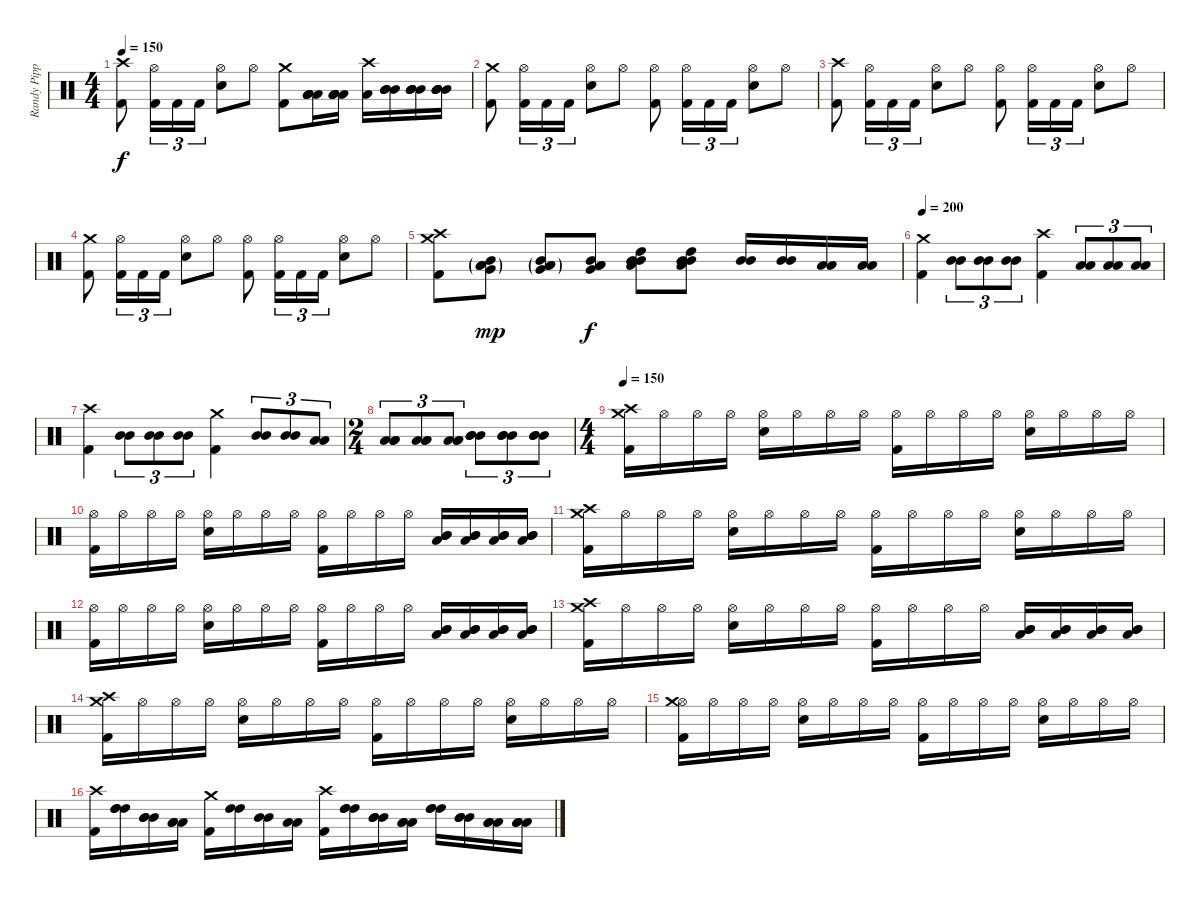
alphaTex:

\track ("Randy Pipper" "Randy Pipp") {instrument percussion}
\staff {score}
\articulation defaults
\ts (4 4)
\tempo 150
\clef neutral
\ks c
("Kick (hit) 2" "Crash high (hit)").8{dy f} ("Kick (hit) 2" "Hi-Hat (open)").16{tu (3 2)} "Kick (hit) 2".16{tu (3 2)} "Kick (hit) 2".16{tu (3 2)} ("Snare (hit) 2" "Hi-Hat (open)").8 "Hi-Hat (open)".8 ("Kick (hit) 2" "Crash medium (hit)").8 ("Low Tom (hit)" "Low Tom (hit)" "Low Tom (hit)" "Low Tom (hit)").16 ("Low Tom (hit)" "Low Tom (hit)" "Low Tom (hit)" "Low Tom (hit)").16 ("Low Tom (hit)" "Crash high (hit)").16 ("Mid Tom (hit)" "Mid Tom (hit)" "Mid Tom (hit)" "Mid Tom (hit)").16 ("Mid Tom (hit)" "Mid Tom (hit)" "Mid Tom (hit)" "Mid Tom (hit)").16 ("Mid Tom (hit)" "Mid Tom (hit)" "Mid Tom (hit)" "Mid Tom (hit)").16 |
("Kick (hit) 2" "Crash medium (hit)").8 ("Kick (hit) 2" "Hi-Hat (open)").16{tu (3 2)} "Kick (hit) 2".16{tu (3 2)} "Kick (hit) 2".16{tu (3 2)} ("Snare (hit) 2" "Hi-Hat (open)").8 "Hi-Hat (open)".8 ("Kick (hit) 2" "Hi-Hat (open)").8 ("Kick (hit) 2" "Hi-Hat (open)").16{tu (3 2)} "Kick (hit) 2".16{tu (3 2)} "Kick (hit) 2".16{tu (3 2)} ("Snare (hit) 2" "Hi-Hat (open)").8 "Hi-Hat (open)".8 |
("Kick (hit) 2" "Crash high (hit)").8 ("Kick (hit) 2" "Hi-Hat (open)").16{tu (3 2)} "Kick (hit) 2".16{tu (3 2)} "Kick (hit) 2".16{tu (3 2)} ("Snare (hit) 2" "Hi-Hat (open)").8 "Hi-Hat (open)".8 ("Kick (hit) 2" "Hi-Hat (open)").8 ("Kick (hit) 2" "Hi-Hat (open)").16{tu (3 2)} "Kick (hit) 2".16{tu (3 2)} "Kick (hit) 2".16{tu (3 2)} ("Snare (hit) 2" "Hi-Hat (open)").8 "Hi-Hat (open)".8 |
("Kick (hit) 2" "Crash medium (hit)").8 ("Kick (hit) 2" "Hi-Hat (open)").16{tu (3 2)} "Kick (hit) 2".16{tu (3 2)} "Kick (hit) 2".16{tu (3 2)} ("Snare (hit) 2" "Hi-Hat (open)").8 "Hi-Hat (open)".8 ("Kick (hit) 2" "Hi-Hat (open)").8 ("Kick (hit) 2" "Hi-Hat (open)").16{tu (3 2)} "Kick (hit) 2".16{tu (3 2)} "Kick (hit) 2".16{tu (3 2)} ("Snare (hit) 2" "Hi-Hat (open)").8 "Hi-Hat (open)".8 |
("Crash medium (hit)" "Crash high (hit)" "Kick (hit) 2").8 ("Mid Tom (hit)"{g} "Low Tom (hit)"{g} "Low Tom (hit)"{g} "Very Low Tom (hit)"{g}).8{dy mp} ("Mid Tom (hit)"{g} "Low Tom (hit)"{g} "Low Tom (hit)"{g} "Very Low Tom (hit)"{g}).8 ("Mid Tom (hit)" "Low Tom (hit)" "Low Tom (hit)" "Very Low Tom (hit)").8{dy f} ("Mid Tom (hit)" "Mid Tom (hit)" "Low Tom (hit)" "High Tom (hit)").8 ("Mid Tom (hit)" "Mid Tom (hit)" "Low Tom (hit)" "High Tom (hit)").8 ("Mid Tom (hit)" "Mid Tom (hit)").16 ("Mid Tom (hit)" "Mid Tom (hit)").16 ("Low Tom (hit)" "Low Tom (hit)").16 ("Low Tom (hit)" "Low Tom (hit)").16 |
\tempo 200
("Kick (hit) 2" "Crash medium (hit)").4 ("Mid Tom (hit)" "Mid Tom (hit)").8{tu (3 2)} ("Mid Tom (hit)" "Mid Tom (hit)").8{tu (3 2)} ("Mid Tom (hit)" "Mid Tom (hit)").8{tu (3 2)} ("Kick (hit) 2" "Crash high (hit)").4 ("Low Tom (hit)" "Low Tom (hit)").8{tu (3 2)} ("Low Tom (hit)" "Low Tom (hit)").8{tu (3 2)} ("Low Tom (hit)" "Low Tom (hit)").8{tu (3 2)} |
("Kick (hit) 2" "Crash high (hit)").4 ("Mid Tom (hit)" "Mid Tom (hit)").8{tu (3 2)} ("Mid Tom (hit)" "Mid Tom (hit)").8{tu (3 2)} ("Mid Tom (hit)" "Mid Tom (hit)").8{tu (3 2)} ("Crash medium (hit)" "Kick (hit) 2").4 ("Mid Tom (hit)" "Mid Tom (hit)").8{tu (3 2)} ("Mid Tom (hit)" "Mid Tom (hit)").8{tu (3 2)} ("Low Tom (hit)" "Low Tom (hit)").8{tu (3 2)} |
\ts (2 4)
("Low Tom (hit)" "Low Tom (hit)" "Low Tom (hit)").8{tu (3 2)} ("Low Tom (hit)" "Low Tom (hit)" "Low Tom (hit)").8{tu (3 2)} ("Low Tom (hit)" "Low Tom (hit)" "Low Tom (hit)").8{tu (3 2)} ("Mid Tom (hit)" "Mid Tom (hit)" "Mid Tom (hit)").8{tu (3 2)} ("Mid Tom (hit)" "Mid Tom (hit)" "Mid Tom (hit)").8{tu (3 2)} ("Mid Tom (hit)" "Mid Tom (hit)" "Mid Tom (hit)").8{tu (3 2)} |
\ts (4 4)
\tempo 150
("Crash medium (hit)" "Kick (hit) 2" "Crash high (hit)").16 "Hi-Hat (open)".16 "Hi-Hat (open)".16 "Hi-Hat (open)".16 ("Hi-Hat (open)" "Snare (hit) 2").16 "Hi-Hat (open)".16 "Hi-Hat (open)".16 "Hi-Hat (open)".16 ("Hi-Hat (open)" "Kick (hit) 2").16 "Hi-Hat (open)".16 "Hi-Hat (open)".16 "Hi-Hat (open)".16 ("Hi-Hat (open)" "Snare (hit) 2").16 "Hi-Hat (open)".16 "Hi-Hat (open)".16 "Hi-Hat (open)".16 |
("Hi-Hat (open)" "Kick (hit) 2").16 "Hi-Hat (open)".16 "Hi-Hat (open)".16 "Hi-Hat (open)".16 ("Hi-Hat (open)" "Snare (hit) 2").16 "Hi-Hat (open)".16 "Hi-Hat (open)".16 "Hi-Hat (open)".16 ("Hi-Hat (open)" "Kick (hit) 2").16 "Hi-Hat (open)".16 "Hi-Hat (open)".16 "Hi-Hat (open)".16 ("Low Tom (hit)" "Mid Tom (hit)" "Mid Tom (hit)").16 ("Low Tom (hit)" "Mid Tom (hit)" "Mid Tom (hit)").16 ("Low Tom (hit)" "Mid Tom (hit)" "Mid Tom (hit)").16 ("Low Tom (hit)" "Mid Tom (hit)" "Mid Tom (hit)").16 |
("Crash medium (hit)" "Kick (hit) 2" "Crash high (hit)").16 "Hi-Hat (open)".16 "Hi-Hat (open)".16 "Hi-Hat (open)".16 ("Hi-Hat (open)" "Snare (hit) 2").16 "Hi-Hat (open)".16 "Hi-Hat (open)".16 "Hi-Hat (open)".16 ("Hi-Hat (open)" "Kick (hit) 2").16 "Hi-Hat (open)".16 "Hi-Hat (open)".16 "Hi-Hat (open)".16 ("Hi-Hat (open)" "Snare (hit) 2").16 "Hi-Hat (open)".16 "Hi-Hat (open)".16 "Hi-Hat (open)".16 |
("Hi-Hat (open)" "Kick (hit) 2").16 "Hi-Hat (open)".16 "Hi-Hat (open)".16 "Hi-Hat (open)".16 ("Hi-Hat (open)" "Snare (hit) 2").16 "Hi-Hat (open)".16 "Hi-Hat (open)".16 "Hi-Hat (open)".16 ("Hi-Hat (open)" "Kick (hit) 2").16 "Hi-Hat (open)".16 "Hi-Hat (open)".16 "Hi-Hat (open)".16 ("Low Tom (hit)" "Mid Tom (hit)" "Mid Tom (hit)").16 ("Low Tom (hit)" "Mid Tom (hit)" "Mid Tom (hit)").16 ("Low Tom (hit)" "Mid Tom (hit)" "Mid Tom (hit)").16 ("Low Tom (hit)" "Mid Tom (hit)" "Mid Tom (hit)").16 |
("Crash high (hit)" "Kick (hit) 2" "Crash medium (hit)").16 "Hi-Hat (open)".16 "Hi-Hat (open)".16 "Hi-Hat (open)".16 ("Hi-Hat (open)" "Snare (hit) 2").16 "Hi-Hat (open)".16 "Hi-Hat (open)".16 "Hi-Hat (open)".16 ("Hi-Hat (open)" "Kick (hit) 2").16 "Hi-Hat (open)".16 "Hi-Hat (open)".16 "Hi-Hat (open)".16 ("Low Tom (hit)" "Mid Tom (hit)" "Mid Tom (hit)").16 ("Low Tom (hit)" "Mid Tom (hit)" "Mid Tom (hit)").16 ("Low Tom (hit)" "Mid Tom (hit)" "Mid Tom (hit)").16 ("Low Tom (hit)" "Mid Tom (hit)" "Mid Tom (hit)").16 |
("Crash medium (hit)" "Kick (hit) 2" "Crash high (hit)").16 "Hi-Hat (open)".16 "Hi-Hat (open)".16 "Hi-Hat (open)".16 ("Hi-Hat (open)" "Snare (hit) 2").16 "Hi-Hat (open)".16 "Hi-Hat (open)".16 "Hi-Hat (open)".16 ("Hi-Hat (open)" "Kick (hit) 2").16 "Hi-Hat (open)".16 "Hi-Hat (open)".16 "Hi-Hat (open)".16 ("Hi-Hat (open)" "Snare (hit) 2").16 "Hi-Hat (open)".16 "Hi-Hat (open)".16 "Hi-Hat (open)".16 |
("Hi-Hat (open)" "Kick (hit) 2" "Crash medium (hit)").16 "Hi-Hat (open)".16 "Hi-Hat (open)".16 "Hi-Hat (open)".16 ("Hi-Hat (open)" "Snare (hit) 2").16 "Hi-Hat (open)".16 "Hi-Hat (open)".16 "Hi-Hat (open)".16 ("Hi-Hat (open)" "Kick (hit) 2").16 "Hi-Hat (open)".16 "Hi-Hat (open)".16 "Hi-Hat (open)".16 ("Hi-Hat (open)" "Snare (hit) 2").16 "Hi-Hat (open)".16 "Hi-Hat (open)".16 "Hi-Hat (open)".16 |
("Kick (hit) 2" "Crash high (hit)").16 ("High Tom (hit)" "High Tom (hit)" "High Tom (hit)").16 ("Mid Tom (hit)" "Mid Tom (hit)" "Mid Tom (hit)").16 ("Low Tom (hit)" "Low Tom (hit)" "Low Tom (hit)").16 ("Kick (hit) 2" "Crash medium (hit)").16 ("High Tom (hit)" "High Tom (hit)").16 ("Mid Tom (hit)" "Mid Tom (hit)").16 ("Low Tom (hit)" "Low Tom (hit)").16 ("Kick (hit) 2" "Crash high (hit)").16 ("High Tom (hit)" "High Tom (hit)" "High Tom (hit)").16 ("Mid Tom (hit)" "Mid Tom (hit)" "Mid Tom (hit)").16 ("Low Tom (hit)" "Low Tom (hit)" "Low Tom (hit)").16 ("High Tom (hit)" "High Tom (hit)" "High Tom (hit)").16 ("Mid Tom (hit)" "Mid Tom (hit)" "Mid Tom (hit)").16 ("Low Tom (hit)" "Low Tom (hit)" "Low Tom (hit)").16 ("Low Tom (hit)" "Low Tom (hit)" "Low Tom (hit)").16
